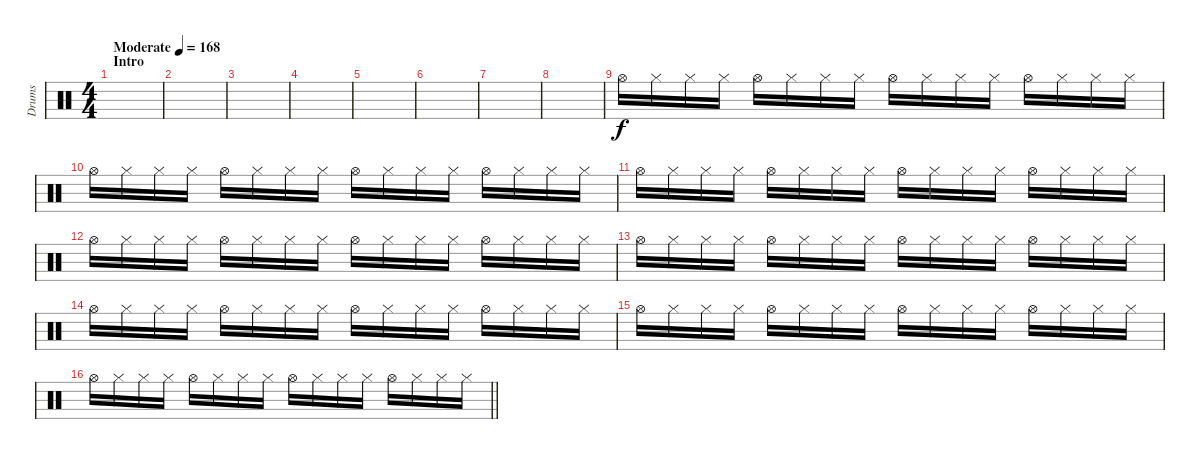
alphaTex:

\track ("Drums" "Drums") {instrument percussion}
\staff {score}
\articulation defaults
\ts (4 4)
\section ("" "Intro")
\tempo (168 "Moderate")
\clef neutral
\ks c
|
|
|
|
|
|
|
|
"Hi-Hat (open)".16 "Hi-Hat (closed)".16 "Hi-Hat (closed)".16 "Hi-Hat (closed)".16 "Hi-Hat (open)".16 "Hi-Hat (closed)".16 "Hi-Hat (closed)".16 "Hi-Hat (closed)".16 "Hi-Hat (open)".16 "Hi-Hat (closed)".16 "Hi-Hat (closed)".16 "Hi-Hat (closed)".16 "Hi-Hat (open)".16 "Hi-Hat (closed)".16 "Hi-Hat (closed)".16 "Hi-Hat (closed)".16 |
"Hi-Hat (open)".16 "Hi-Hat (closed)".16 "Hi-Hat (closed)".16 "Hi-Hat (closed)".16 "Hi-Hat (open)".16 "Hi-Hat (closed)".16 "Hi-Hat (closed)".16 "Hi-Hat (closed)".16 "Hi-Hat (open)".16 "Hi-Hat (closed)".16 "Hi-Hat (closed)".16 "Hi-Hat (closed)".16 "Hi-Hat (open)".16 "Hi-Hat (closed)".16 "Hi-Hat (closed)".16 "Hi-Hat (closed)".16 |
"Hi-Hat (open)".16 "Hi-Hat (closed)".16 "Hi-Hat (closed)".16 "Hi-Hat (closed)".16 "Hi-Hat (open)".16 "Hi-Hat (closed)".16 "Hi-Hat (closed)".16 "Hi-Hat (closed)".16 "Hi-Hat (open)".16 "Hi-Hat (closed)".16 "Hi-Hat (closed)".16 "Hi-Hat (closed)".16 "Hi-Hat (open)".16 "Hi-Hat (closed)".16 "Hi-Hat (closed)".16 "Hi-Hat (closed)".16 |
"Hi-Hat (open)".16 "Hi-Hat (closed)".16 "Hi-Hat (closed)".16 "Hi-Hat (closed)".16 "Hi-Hat (open)".16 "Hi-Hat (closed)".16 "Hi-Hat (closed)".16 "Hi-Hat (closed)".16 "Hi-Hat (open)".16 "Hi-Hat (closed)".16 "Hi-Hat (closed)".16 "Hi-Hat (closed)".16 "Hi-Hat (open)".16 "Hi-Hat (closed)".16 "Hi-Hat (closed)".16 "Hi-Hat (closed)".16 |
"Hi-Hat (open)".16 "Hi-Hat (closed)".16 "Hi-Hat (closed)".16 "Hi-Hat (closed)".16 "Hi-Hat (open)".16 "Hi-Hat (closed)".16 "Hi-Hat (closed)".16 "Hi-Hat (closed)".16 "Hi-Hat (open)".16 "Hi-Hat (closed)".16 "Hi-Hat (closed)".16 "Hi-Hat (closed)".16 "Hi-Hat (open)".16 "Hi-Hat (closed)".16 "Hi-Hat (closed)".16 "Hi-Hat (closed)".16 |
"Hi-Hat (open)".16 "Hi-Hat (closed)".16 "Hi-Hat (closed)".16 "Hi-Hat (closed)".16 "Hi-Hat (open)".16 "Hi-Hat (closed)".16 "Hi-Hat (closed)".16 "Hi-Hat (closed)".16 "Hi-Hat (open)".16 "Hi-Hat (closed)".16 "Hi-Hat (closed)".16 "Hi-Hat (closed)".16 "Hi-Hat (open)".16 "Hi-Hat (closed)".16 "Hi-Hat (closed)".16 "Hi-Hat (closed)".16 |
"Hi-Hat (open)".16 "Hi-Hat (closed)".16 "Hi-Hat (closed)".16 "Hi-Hat (closed)".16 "Hi-Hat (open)".16 "Hi-Hat (closed)".16 "Hi-Hat (closed)".16 "Hi-Hat (closed)".16 "Hi-Hat (open)".16 "Hi-Hat (closed)".16 "Hi-Hat (closed)".16 "Hi-Hat (closed)".16 "Hi-Hat (open)".16 "Hi-Hat (closed)".16 "Hi-Hat (closed)".16 "Hi-Hat (closed)".16 |
\barLineRight lightlight "Hi-Hat (open)".16 "Hi-Hat (closed)".16 "Hi-Hat (closed)".16 "Hi-Hat (closed)".16 "Hi-Hat (open)".16 "Hi-Hat (closed)".16 "Hi-Hat (closed)".16 "Hi-Hat (closed)".16 "Hi-Hat (open)".16 "Hi-Hat (closed)".16 "Hi-Hat (closed)".16 "Hi-Hat (closed)".16 "Hi-Hat (open)".16 "Hi-Hat (closed)".16 "Hi-Hat (closed)".16 "Hi-Hat (closed)".16
